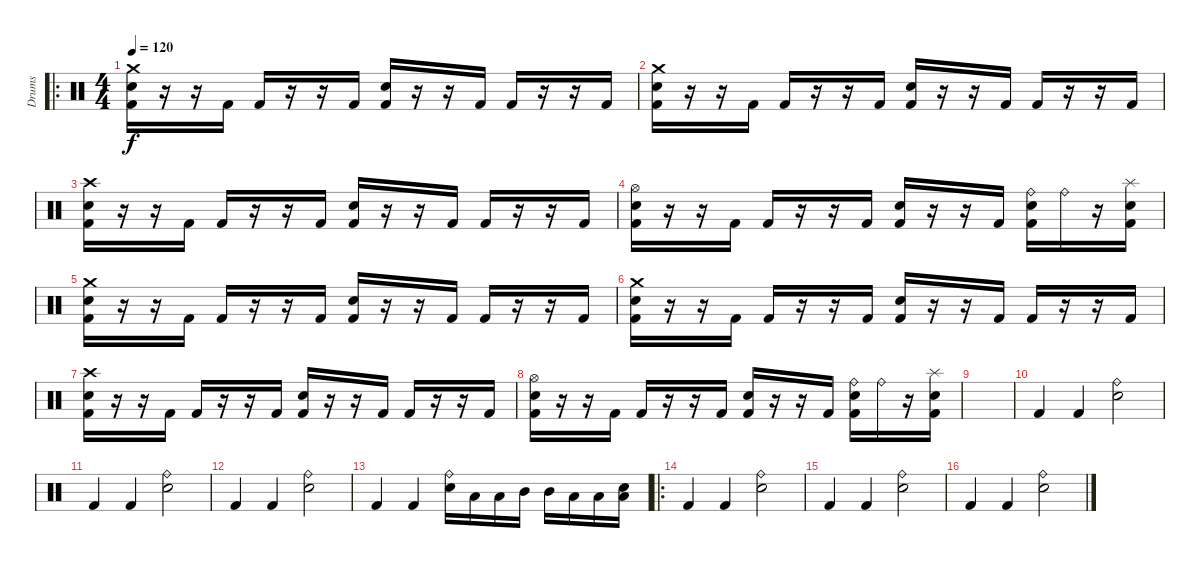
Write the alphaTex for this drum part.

\track ("Drums" "Drums") {instrument percussion}
\staff {score}
\articulation defaults
\ro
\ts (4 4)
\tempo 120
\clef neutral
\ks c
("Crash medium (hit)" "Electric Snare (hit)" "Kick (hit) 2").16{dy f} r.16 r.16 "Kick (hit) 2".16 "Kick (hit) 2".16 r.16 r.16 "Kick (hit) 2".16 ("Electric Snare (hit)" "Kick (hit) 2").16 r.16 r.16 "Kick (hit) 2".16 "Kick (hit) 2".16 r.16 r.16 "Kick (hit) 2".16 |
("Crash medium (hit)" "Electric Snare (hit)" "Kick (hit) 2").16 r.16 r.16 "Kick (hit) 2".16 "Kick (hit) 2".16 r.16 r.16 "Kick (hit) 2".16 ("Electric Snare (hit)" "Kick (hit) 2").16 r.16 r.16 "Kick (hit) 2".16 "Kick (hit) 2".16 r.16 r.16 "Kick (hit) 2".16 |
("Crash high (hit)" "Electric Snare (hit)" "Kick (hit) 2").16 r.16 r.16 "Kick (hit) 2".16 "Kick (hit) 2".16 r.16 r.16 "Kick (hit) 2".16 ("Electric Snare (hit)" "Kick (hit) 2").16 r.16 r.16 "Kick (hit) 2".16 "Kick (hit) 2".16 r.16 r.16 "Kick (hit) 2".16 |
("Hi-Hat (open)" "Electric Snare (hit)" "Kick (hit) 2").16 r.16 r.16 "Kick (hit) 2".16 "Kick (hit) 2".16 r.16 r.16 "Kick (hit) 2".16 ("Electric Snare (hit)" "Kick (hit) 2").16 r.16 r.16 "Kick (hit) 2".16 ("Ride (bell)" "Electric Snare (hit)" "Kick (hit) 2").16 "Ride (bell)".16 r.16 ("Splash (hit)" "Electric Snare (hit)" "Kick (hit) 2").16 |
("Crash medium (hit)" "Electric Snare (hit)" "Kick (hit) 2").16 r.16 r.16 "Kick (hit) 2".16 "Kick (hit) 2".16 r.16 r.16 "Kick (hit) 2".16 ("Electric Snare (hit)" "Kick (hit) 2").16 r.16 r.16 "Kick (hit) 2".16 "Kick (hit) 2".16 r.16 r.16 "Kick (hit) 2".16 |
("Crash medium (hit)" "Electric Snare (hit)" "Kick (hit) 2").16 r.16 r.16 "Kick (hit) 2".16 "Kick (hit) 2".16 r.16 r.16 "Kick (hit) 2".16 ("Electric Snare (hit)" "Kick (hit) 2").16 r.16 r.16 "Kick (hit) 2".16 "Kick (hit) 2".16 r.16 r.16 "Kick (hit) 2".16 |
("Crash high (hit)" "Electric Snare (hit)" "Kick (hit) 2").16 r.16 r.16 "Kick (hit) 2".16 "Kick (hit) 2".16 r.16 r.16 "Kick (hit) 2".16 ("Electric Snare (hit)" "Kick (hit) 2").16 r.16 r.16 "Kick (hit) 2".16 "Kick (hit) 2".16 r.16 r.16 "Kick (hit) 2".16 |
("Hi-Hat (open)" "Electric Snare (hit)" "Kick (hit) 2").16 r.16 r.16 "Kick (hit) 2".16 "Kick (hit) 2".16 r.16 r.16 "Kick (hit) 2".16 ("Electric Snare (hit)" "Kick (hit) 2").16 r.16 r.16 "Kick (hit) 2".16 ("Ride (bell)" "Electric Snare (hit)" "Kick (hit) 2").16 "Ride (bell)".16 r.16 ("Splash (hit)" "Electric Snare (hit)" "Kick (hit) 2").16 |
|
"Kick (hit) 2".4 "Kick (hit) 2".4 ("Ride (bell)" "Electric Snare (hit)").2 |
"Kick (hit) 2".4 "Kick (hit) 2".4 ("Ride (bell)" "Electric Snare (hit)").2 |
"Kick (hit) 2".4 "Kick (hit) 2".4 ("Ride (bell)" "Electric Snare (hit)").2 |
"Kick (hit) 2".4 "Kick (hit) 2".4 ("Ride (bell)" "Electric Snare (hit)").16 "Low Tom (hit)".16 "Low Tom (hit)".16 "Mid Tom (hit)".16 "Mid Tom (hit)".16 "Low Floor Tom (hit)".16 "Low Floor Tom (hit)".16 ("Low Tom (hit)" "Electric Snare (hit)").16 |
\ro "Kick (hit) 2".4 "Kick (hit) 2".4
("Ride (bell)" "Electric Snare (hit)").2 |
"Kick (hit) 2".4 "Kick (hit) 2".4 ("Ride (bell)" "Electric Snare (hit)").2 |
"Kick (hit) 2".4 "Kick (hit) 2".4 ("Ride (bell)" "Electric Snare (hit)").2
